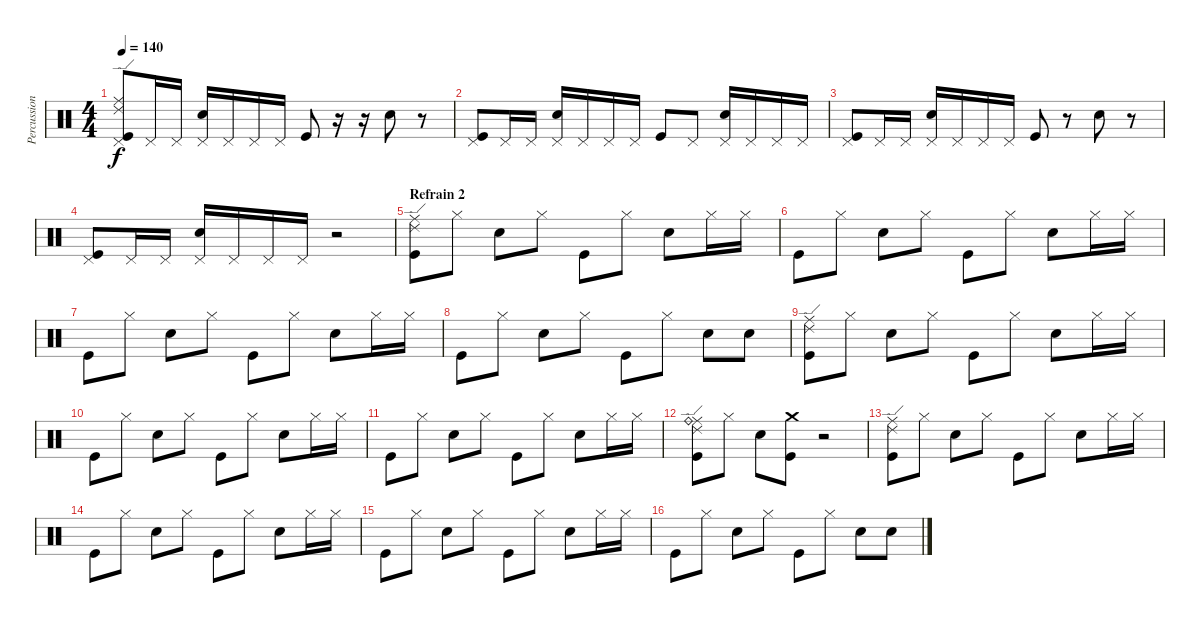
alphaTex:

\track ("Percussion" "Percussion") {instrument percussion}
\staff {score}
\articulation defaults
\ts (4 4)
\tempo 140
\clef neutral
\ks c
("Ride (middle)" "Ride (edge) 2" "Pedal Hi-Hat (hit)" "Kick (hit)").8{dy f} "Pedal Hi-Hat (hit)".16 "Pedal Hi-Hat (hit)".16 ("Pedal Hi-Hat (hit)" "Snare (hit) 2").16 "Pedal Hi-Hat (hit)".16 "Pedal Hi-Hat (hit)".16 "Pedal Hi-Hat (hit)".16 "Kick (hit)".8 r.16 r.16 "Snare (hit) 2".8 r.8 |
("Pedal Hi-Hat (hit)" "Kick (hit)").8 "Pedal Hi-Hat (hit)".16 "Pedal Hi-Hat (hit)".16 ("Pedal Hi-Hat (hit)" "Snare (hit) 2").16 "Pedal Hi-Hat (hit)".16 "Pedal Hi-Hat (hit)".16 "Pedal Hi-Hat (hit)".16 "Kick (hit)".8 "Pedal Hi-Hat (hit)".8 ("Pedal Hi-Hat (hit)" "Snare (hit) 2").16 "Pedal Hi-Hat (hit)".16 "Pedal Hi-Hat (hit)".16 "Pedal Hi-Hat (hit)".16 |
("Pedal Hi-Hat (hit)" "Kick (hit)").8 "Pedal Hi-Hat (hit)".16 "Pedal Hi-Hat (hit)".16 ("Pedal Hi-Hat (hit)" "Snare (hit) 2").16 "Pedal Hi-Hat (hit)".16 "Pedal Hi-Hat (hit)".16 "Pedal Hi-Hat (hit)".16 "Kick (hit)".8 r.8 "Snare (hit) 2".8 r.8 |
("Pedal Hi-Hat (hit)" "Kick (hit)").8 "Pedal Hi-Hat (hit)".16 "Pedal Hi-Hat (hit)".16 ("Pedal Hi-Hat (hit)" "Snare (hit) 2").16 "Pedal Hi-Hat (hit)".16 "Pedal Hi-Hat (hit)".16 "Pedal Hi-Hat (hit)".16 r.2 |
\section ("" "Refrain 2")
("Ride (middle)" "Ride (edge) 2" "Kick (hit)").8 "Hi-Hat (closed)".8 "Snare (hit) 2".8 "Hi-Hat (closed)".8 "Kick (hit)".8 "Hi-Hat (closed)".8 "Snare (hit) 2".8 "Hi-Hat (closed)".16 "Hi-Hat (closed)".16 |
"Kick (hit)".8 "Hi-Hat (closed)".8 "Snare (hit) 2".8 "Hi-Hat (closed)".8 "Kick (hit)".8 "Hi-Hat (closed)".8 "Snare (hit) 2".8 "Hi-Hat (closed)".16 "Hi-Hat (closed)".16 |
"Kick (hit)".8 "Hi-Hat (closed)".8 "Snare (hit) 2".8 "Hi-Hat (closed)".8 "Kick (hit)".8 "Hi-Hat (closed)".8 "Snare (hit) 2".8 "Hi-Hat (closed)".16 "Hi-Hat (closed)".16 |
"Kick (hit)".8 "Hi-Hat (closed)".8 "Snare (hit) 2".8 "Hi-Hat (closed)".8 "Kick (hit)".8 "Hi-Hat (closed)".8 "Snare (hit) 2".8 "Snare (hit) 2".8 |
("Ride (middle)" "Ride (edge) 2" "Kick (hit)").8 "Hi-Hat (closed)".8 "Snare (hit) 2".8 "Hi-Hat (closed)".8 "Kick (hit)".8 "Hi-Hat (closed)".8 "Snare (hit) 2".8 "Hi-Hat (closed)".16 "Hi-Hat (closed)".16 |
"Kick (hit)".8 "Hi-Hat (closed)".8 "Snare (hit) 2".8 "Hi-Hat (closed)".8 "Kick (hit)".8 "Hi-Hat (closed)".8 "Snare (hit) 2".8 "Hi-Hat (closed)".16 "Hi-Hat (closed)".16 |
"Kick (hit)".8 "Hi-Hat (closed)".8 "Snare (hit) 2".8 "Hi-Hat (closed)".8 "Kick (hit)".8 "Hi-Hat (closed)".8 "Snare (hit) 2".8 "Hi-Hat (closed)".16 "Hi-Hat (closed)".16 |
("Ride (edge) 2" "Ride (middle)" "Ride (bell)" "Kick (hit)").8 "Hi-Hat (closed)".8 "Snare (hit) 2".8 ("Crash medium (hit)" "Kick (hit)").8 r.2 |
("Ride (middle)" "Ride (edge) 2" "Kick (hit)").8 "Hi-Hat (closed)".8 "Snare (hit) 2".8 "Hi-Hat (closed)".8 "Kick (hit)".8 "Hi-Hat (closed)".8 "Snare (hit) 2".8 "Hi-Hat (closed)".16 "Hi-Hat (closed)".16 |
"Kick (hit)".8 "Hi-Hat (closed)".8 "Snare (hit) 2".8 "Hi-Hat (closed)".8 "Kick (hit)".8 "Hi-Hat (closed)".8 "Snare (hit) 2".8 "Hi-Hat (closed)".16 "Hi-Hat (closed)".16 |
"Kick (hit)".8 "Hi-Hat (closed)".8 "Snare (hit) 2".8 "Hi-Hat (closed)".8 "Kick (hit)".8 "Hi-Hat (closed)".8 "Snare (hit) 2".8 "Hi-Hat (closed)".16 "Hi-Hat (closed)".16 |
"Kick (hit)".8 "Hi-Hat (closed)".8 "Snare (hit) 2".8 "Hi-Hat (closed)".8 "Kick (hit)".8 "Hi-Hat (closed)".8 "Snare (hit) 2".8 "Snare (hit) 2".8
